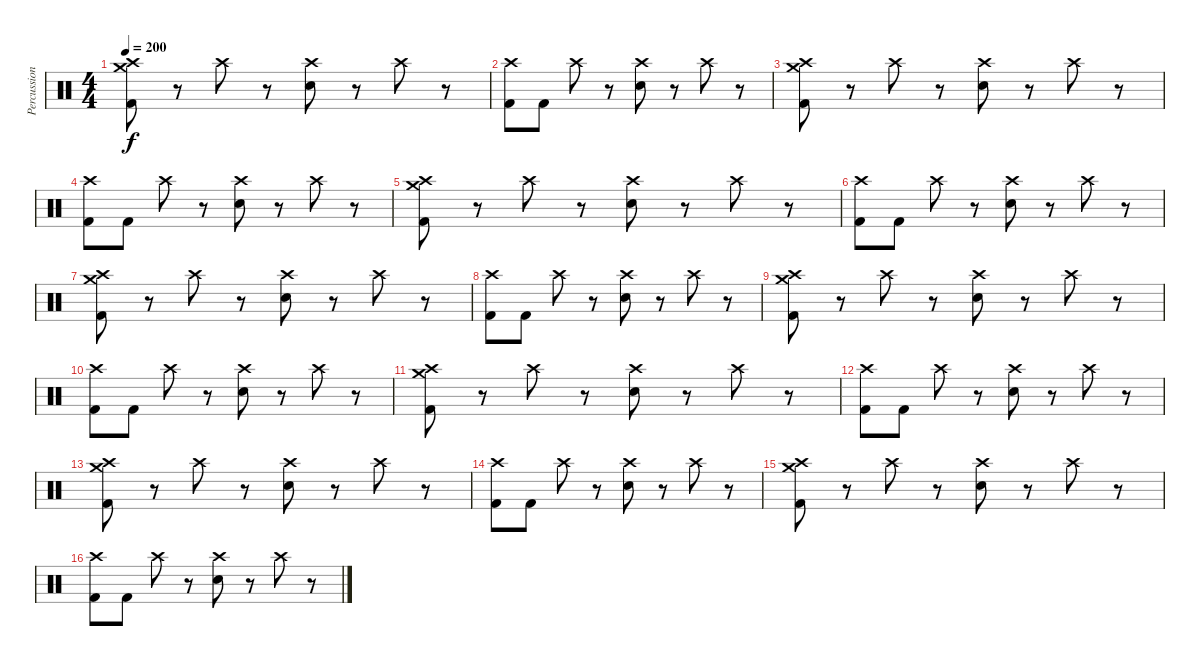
\track ("Percussion" "Percussion") {instrument percussion}
\staff {score}
\articulation defaults
\ts (4 4)
\tempo 200
\clef neutral
\ks c
("Crash medium (hit)" "Crash high (hit)" "Kick (hit) 2").8{dy f} r.8 "Crash high (hit)".8 r.8 ("Crash high (hit)" "Electric Snare (hit)").8 r.8 "Crash high (hit)".8 r.8 |
("Crash high (hit)" "Kick (hit) 2").8 "Kick (hit) 2".8 "Crash high (hit)".8 r.8 ("Crash high (hit)" "Electric Snare (hit)").8 r.8 "Crash high (hit)".8 r.8 |
("Crash medium (hit)" "Crash high (hit)" "Kick (hit) 2").8 r.8 "Crash high (hit)".8 r.8 ("Crash high (hit)" "Electric Snare (hit)").8 r.8 "Crash high (hit)".8 r.8 |
("Crash high (hit)" "Kick (hit) 2").8 "Kick (hit) 2".8 "Crash high (hit)".8 r.8 ("Crash high (hit)" "Electric Snare (hit)").8 r.8 "Crash high (hit)".8 r.8 |
("Crash medium (hit)" "Crash high (hit)" "Kick (hit) 2").8 r.8 "Crash high (hit)".8 r.8 ("Crash high (hit)" "Electric Snare (hit)").8 r.8 "Crash high (hit)".8 r.8 |
("Crash high (hit)" "Kick (hit) 2").8 "Kick (hit) 2".8 "Crash high (hit)".8 r.8 ("Crash high (hit)" "Electric Snare (hit)").8 r.8 "Crash high (hit)".8 r.8 |
("Crash medium (hit)" "Crash high (hit)" "Kick (hit) 2").8 r.8 "Crash high (hit)".8 r.8 ("Crash high (hit)" "Electric Snare (hit)").8 r.8 "Crash high (hit)".8 r.8 |
("Crash high (hit)" "Kick (hit) 2").8 "Kick (hit) 2".8 "Crash high (hit)".8 r.8 ("Crash high (hit)" "Electric Snare (hit)").8 r.8 "Crash high (hit)".8 r.8 |
("Crash medium (hit)" "Crash high (hit)" "Kick (hit) 2").8 r.8 "Crash high (hit)".8 r.8 ("Crash high (hit)" "Electric Snare (hit)").8 r.8 "Crash high (hit)".8 r.8 |
("Crash high (hit)" "Kick (hit) 2").8 "Kick (hit) 2".8 "Crash high (hit)".8 r.8 ("Crash high (hit)" "Electric Snare (hit)").8 r.8 "Crash high (hit)".8 r.8 |
("Crash medium (hit)" "Crash high (hit)" "Kick (hit) 2").8 r.8 "Crash high (hit)".8 r.8 ("Crash high (hit)" "Electric Snare (hit)").8 r.8 "Crash high (hit)".8 r.8 |
("Crash high (hit)" "Kick (hit) 2").8 "Kick (hit) 2".8 "Crash high (hit)".8 r.8 ("Crash high (hit)" "Electric Snare (hit)").8 r.8 "Crash high (hit)".8 r.8 |
("Crash medium (hit)" "Crash high (hit)" "Kick (hit) 2").8 r.8 "Crash high (hit)".8 r.8 ("Crash high (hit)" "Electric Snare (hit)").8 r.8 "Crash high (hit)".8 r.8 |
("Crash high (hit)" "Kick (hit) 2").8 "Kick (hit) 2".8 "Crash high (hit)".8 r.8 ("Crash high (hit)" "Electric Snare (hit)").8 r.8 "Crash high (hit)".8 r.8 |
("Crash medium (hit)" "Crash high (hit)" "Kick (hit) 2").8 r.8 "Crash high (hit)".8 r.8 ("Crash high (hit)" "Electric Snare (hit)").8 r.8 "Crash high (hit)".8 r.8 |
("Crash high (hit)" "Kick (hit) 2").8 "Kick (hit) 2".8 "Crash high (hit)".8 r.8 ("Crash high (hit)" "Electric Snare (hit)").8 r.8 "Crash high (hit)".8 r.8
